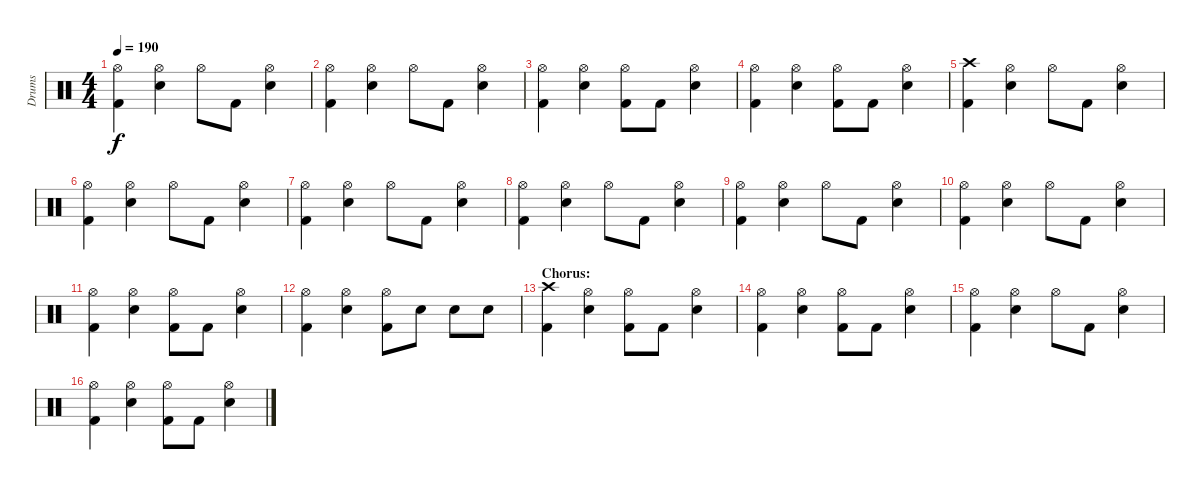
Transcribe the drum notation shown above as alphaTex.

\track ("Drums" "Drums") {instrument percussion}
\staff {score}
\articulation defaults
\ts (4 4)
\tempo 190
\clef neutral
\ks c
("Hi-Hat (open)" "Kick (hit) 2").4{dy f} ("Hi-Hat (open)" "Electric Snare (hit)").4 "Hi-Hat (open)".8 "Kick (hit) 2".8 ("Hi-Hat (open)" "Electric Snare (hit)").4 |
("Hi-Hat (open)" "Kick (hit) 2").4 ("Hi-Hat (open)" "Electric Snare (hit)").4 "Hi-Hat (open)".8 "Kick (hit) 2".8 ("Hi-Hat (open)" "Electric Snare (hit)").4 |
("Hi-Hat (open)" "Kick (hit) 2").4 ("Hi-Hat (open)" "Electric Snare (hit)").4 ("Hi-Hat (open)" "Kick (hit) 2").8 "Kick (hit) 2".8 ("Hi-Hat (open)" "Electric Snare (hit)").4 |
("Hi-Hat (open)" "Kick (hit) 2").4 ("Hi-Hat (open)" "Electric Snare (hit)").4 ("Hi-Hat (open)" "Kick (hit) 2").8 "Kick (hit) 2".8 ("Hi-Hat (open)" "Electric Snare (hit)").4 |
("Crash high (hit)" "Kick (hit) 2").4 ("Hi-Hat (open)" "Electric Snare (hit)").4 "Hi-Hat (open)".8 "Kick (hit) 2".8 ("Hi-Hat (open)" "Electric Snare (hit)").4 |
("Hi-Hat (open)" "Kick (hit) 2").4 ("Hi-Hat (open)" "Electric Snare (hit)").4 "Hi-Hat (open)".8 "Kick (hit) 2".8 ("Hi-Hat (open)" "Electric Snare (hit)").4 |
("Hi-Hat (open)" "Kick (hit) 2").4 ("Hi-Hat (open)" "Electric Snare (hit)").4 "Hi-Hat (open)".8 "Kick (hit) 2".8 ("Hi-Hat (open)" "Electric Snare (hit)").4 |
("Hi-Hat (open)" "Kick (hit) 2").4 ("Hi-Hat (open)" "Electric Snare (hit)").4 "Hi-Hat (open)".8 "Kick (hit) 2".8 ("Hi-Hat (open)" "Electric Snare (hit)").4 |
("Hi-Hat (open)" "Kick (hit) 2").4 ("Hi-Hat (open)" "Electric Snare (hit)").4 "Hi-Hat (open)".8 "Kick (hit) 2".8 ("Hi-Hat (open)" "Electric Snare (hit)").4 |
("Hi-Hat (open)" "Kick (hit) 2").4 ("Hi-Hat (open)" "Electric Snare (hit)").4 "Hi-Hat (open)".8 "Kick (hit) 2".8 ("Hi-Hat (open)" "Electric Snare (hit)").4 |
("Hi-Hat (open)" "Kick (hit) 2").4 ("Hi-Hat (open)" "Electric Snare (hit)").4 ("Hi-Hat (open)" "Kick (hit) 2").8 "Kick (hit) 2".8 ("Hi-Hat (open)" "Electric Snare (hit)").4 |
("Hi-Hat (open)" "Kick (hit) 2").4 ("Hi-Hat (open)" "Electric Snare (hit)").4 ("Hi-Hat (open)" "Kick (hit) 2").8 "Electric Snare (hit)".8 "Electric Snare (hit)".8 "Electric Snare (hit)".8 |
\section ("" "Chorus:")
("Crash high (hit)" "Kick (hit) 2").4 ("Hi-Hat (open)" "Electric Snare (hit)").4 ("Hi-Hat (open)" "Kick (hit) 2").8 "Kick (hit) 2".8 ("Hi-Hat (open)" "Electric Snare (hit)").4 |
("Hi-Hat (open)" "Kick (hit) 2").4 ("Hi-Hat (open)" "Electric Snare (hit)").4 ("Hi-Hat (open)" "Kick (hit) 2").8 "Kick (hit) 2".8 ("Hi-Hat (open)" "Electric Snare (hit)").4 |
("Hi-Hat (open)" "Kick (hit) 2").4 ("Hi-Hat (open)" "Electric Snare (hit)").4 "Hi-Hat (open)".8 "Kick (hit) 2".8 ("Hi-Hat (open)" "Electric Snare (hit)").4 |
("Hi-Hat (open)" "Kick (hit) 2").4 ("Hi-Hat (open)" "Electric Snare (hit)").4 ("Hi-Hat (open)" "Kick (hit) 2").8 "Kick (hit) 2".8 ("Hi-Hat (open)" "Electric Snare (hit)").4
